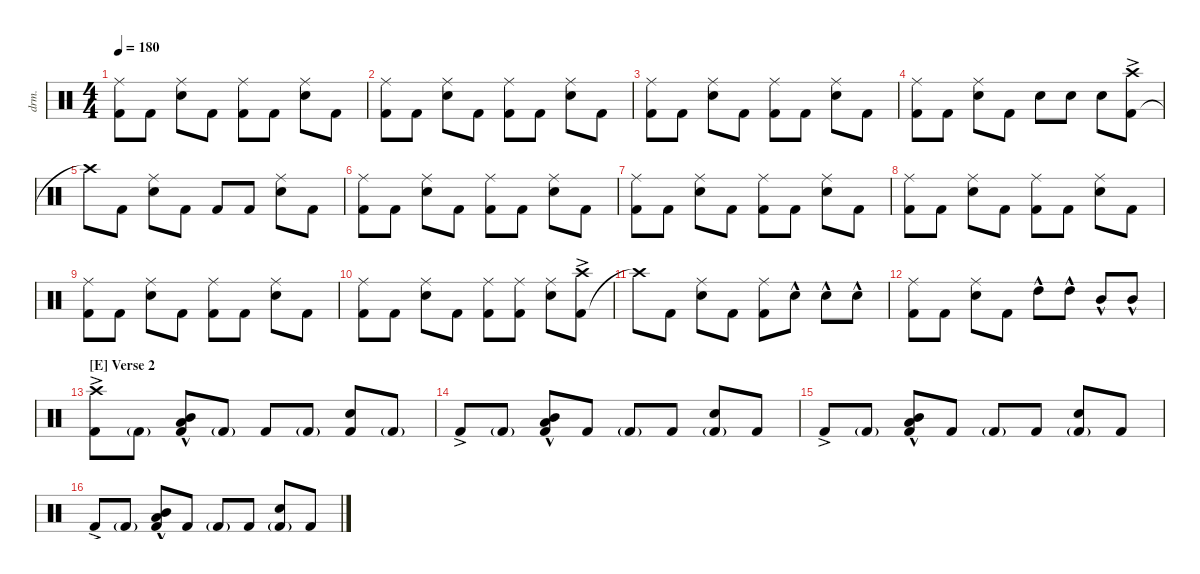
\defaultSystemsLayout 4
\hideDynamics
\bracketExtendMode nobrackets
\otherSystemsTrackNameOrientation horizontal
\track ("Drum" "drm.") {instrument percussion}
\staff {score}
\articulation defaults
\ts (4 4)
\tempo 180
\clef neutral
\ks c
("Ride (middle)" "Kick (hit) 2").8{dy f beam Down} "Kick (hit) 2".8{beam Down} ("Snare (hit) 2" "Ride (middle)").8{beam Down} "Kick (hit) 2".8{beam Down} ("Kick (hit) 2" "Ride (middle)").8{beam Down} "Kick (hit) 2".8{beam Down} ("Snare (hit) 2" "Ride (middle)").8{beam Down} "Kick (hit) 2".8{beam Down} |
("Ride (middle)" "Kick (hit) 2").8{beam Down} "Kick (hit) 2".8{beam Down} ("Snare (hit) 2" "Ride (middle)").8{beam Down} "Kick (hit) 2".8{beam Down} ("Kick (hit) 2" "Ride (middle)").8{beam Down} "Kick (hit) 2".8{beam Down} ("Snare (hit) 2" "Ride (middle)").8{beam Down} "Kick (hit) 2".8{beam Down} |
("Ride (middle)" "Kick (hit) 2").8{beam Down} "Kick (hit) 2".8{beam Down} ("Snare (hit) 2" "Ride (middle)").8{beam Down} "Kick (hit) 2".8{beam Down} ("Kick (hit) 2" "Ride (middle)").8{beam Down} "Kick (hit) 2".8{beam Down} ("Snare (hit) 2" "Ride (middle)").8{beam Down} "Kick (hit) 2".8{beam Down} |
("Ride (middle)" "Kick (hit) 2").8{beam Down} "Kick (hit) 2".8{beam Down} ("Snare (hit) 2" "Ride (middle)").8{beam Down} "Kick (hit) 2".8{beam Down} "Snare (hit) 2".8{beam Down} "Snare (hit) 2".8{beam Down} "Snare (hit) 2".8{beam Down} ("Kick (hit) 2"{ac} "Crash high (hit)"{ac}).8{beam Down} |
"Crash high (hit)"{t}.8{beam Down} "Kick (hit) 2".8{beam Down} ("Snare (hit) 2" "Ride (middle)").8{beam Down} "Kick (hit) 2".8{beam Down} "Kick (hit) 2".8{beam Up} "Kick (hit) 2".8{beam Up} ("Snare (hit) 2" "Ride (middle)").8{beam Down} "Kick (hit) 2".8{beam Down} |
("Ride (middle)" "Kick (hit) 2").8{beam Down} "Kick (hit) 2".8{beam Down} ("Snare (hit) 2" "Ride (middle)").8{beam Down} "Kick (hit) 2".8{beam Down} ("Kick (hit) 2" "Ride (middle)").8{beam Down} "Kick (hit) 2".8{beam Down} ("Snare (hit) 2" "Ride (middle)").8{beam Down} "Kick (hit) 2".8{beam Down} |
("Ride (middle)" "Kick (hit) 2").8{beam Down} "Kick (hit) 2".8{beam Down} ("Snare (hit) 2" "Ride (middle)").8{beam Down} "Kick (hit) 2".8{beam Down} ("Kick (hit) 2" "Ride (middle)").8{beam Down} "Kick (hit) 2".8{beam Down} ("Snare (hit) 2" "Ride (middle)").8{beam Down} "Kick (hit) 2".8{beam Down} |
("Ride (middle)" "Kick (hit) 2").8{beam Down} "Kick (hit) 2".8{beam Down} ("Snare (hit) 2" "Ride (middle)").8{beam Down} "Kick (hit) 2".8{beam Down} ("Kick (hit) 2" "Ride (middle)").8{beam Down} "Kick (hit) 2".8{beam Down} ("Snare (hit) 2" "Ride (middle)").8{beam Down} "Kick (hit) 2".8{beam Down} |
("Ride (middle)" "Kick (hit) 2").8{beam Down} "Kick (hit) 2".8{beam Down} ("Snare (hit) 2" "Ride (middle)").8{beam Down} "Kick (hit) 2".8{beam Down} ("Kick (hit) 2" "Ride (middle)").8{beam Down} "Kick (hit) 2".8{beam Down} ("Snare (hit) 2" "Ride (middle)").8{beam Down} "Kick (hit) 2".8{beam Down} |
("Ride (middle)" "Kick (hit) 2").8{beam Down} "Kick (hit) 2".8{beam Down} ("Snare (hit) 2" "Ride (middle)").8{beam Down} "Kick (hit) 2".8{beam Down} ("Kick (hit) 2" "Ride (middle)").8{beam Down} ("Kick (hit) 2" "Ride (middle)").8{beam Down} ("Snare (hit) 2" "Ride (middle)").8{beam Down} ("Kick (hit) 2"{ac} "Crash high (hit)"{ac}).8{beam Down} |
"Crash high (hit)"{t}.8{beam Down} "Kick (hit) 2".8{beam Down} ("Snare (hit) 2" "Ride (middle)").8{beam Down} "Kick (hit) 2".8{beam Down} ("Kick (hit) 2" "Ride (middle)").8{beam Down} "Snare (hit) 2"{hac}.8{beam Down} "Snare (hit) 2"{hac}.8{beam Down} "Snare (hit) 2"{hac}.8{beam Down} |
("Kick (hit) 2" "Ride (middle)").8{beam Down} "Kick (hit) 2".8{beam Down} ("Snare (hit) 2" "Ride (middle)").8{beam Down} "Kick (hit) 2".8{beam Down} "High Tom (hit)"{hac}.8{beam Down} "High Tom (hit)"{hac}.8{beam Down} "Mid Tom (hit)"{hac}.8{beam Up} "Mid Tom (hit)"{hac}.8{beam Up} |
\section ("E" "Verse 2")
("Kick (hit) 2"{ac} "Crash high (hit)"{ac}).8{beam Down} "Kick (hit) 2"{g}.8{beam Down} ("Kick (hit) 2"{hac} "Low Tom (hit)"{hac} "Mid Tom (hit)"{hac}).8{beam Up} "Kick (hit) 2"{g}.8{beam Up} "Kick (hit) 2".8{beam Up} "Kick (hit) 2"{g}.8{beam Up} ("Kick (hit) 2" "Snare (hit) 2").8{beam Up} "Kick (hit) 2"{g}.8{beam Up} |
"Kick (hit) 2"{ac}.8{beam Up} "Kick (hit) 2"{g}.8{beam Up} ("Kick (hit) 2"{hac} "Low Tom (hit)"{hac} "Mid Tom (hit)"{hac}).8{beam Up} "Kick (hit) 2".8{beam Up} "Kick (hit) 2"{g}.8{beam Up} "Kick (hit) 2".8{beam Up} ("Kick (hit) 2"{g} "Snare (hit) 2").8{beam Up} "Kick (hit) 2".8{beam Up} |
"Kick (hit) 2"{ac}.8{beam Up} "Kick (hit) 2"{g}.8{beam Up} ("Kick (hit) 2"{hac} "Low Tom (hit)"{hac} "Mid Tom (hit)"{hac}).8{beam Up} "Kick (hit) 2".8{beam Up} "Kick (hit) 2"{g}.8{beam Up} "Kick (hit) 2".8{beam Up} ("Kick (hit) 2"{g} "Snare (hit) 2").8{beam Up} "Kick (hit) 2".8{beam Up} |
"Kick (hit) 2"{ac}.8{beam Up} "Kick (hit) 2"{g}.8{beam Up} ("Kick (hit) 2"{hac} "Low Tom (hit)"{hac} "Mid Tom (hit)"{hac}).8{beam Up} "Kick (hit) 2".8{beam Up} "Kick (hit) 2"{g}.8{beam Up} "Kick (hit) 2".8{beam Up} ("Kick (hit) 2"{g} "Snare (hit) 2").8{beam Up} "Kick (hit) 2".8{beam Up}
